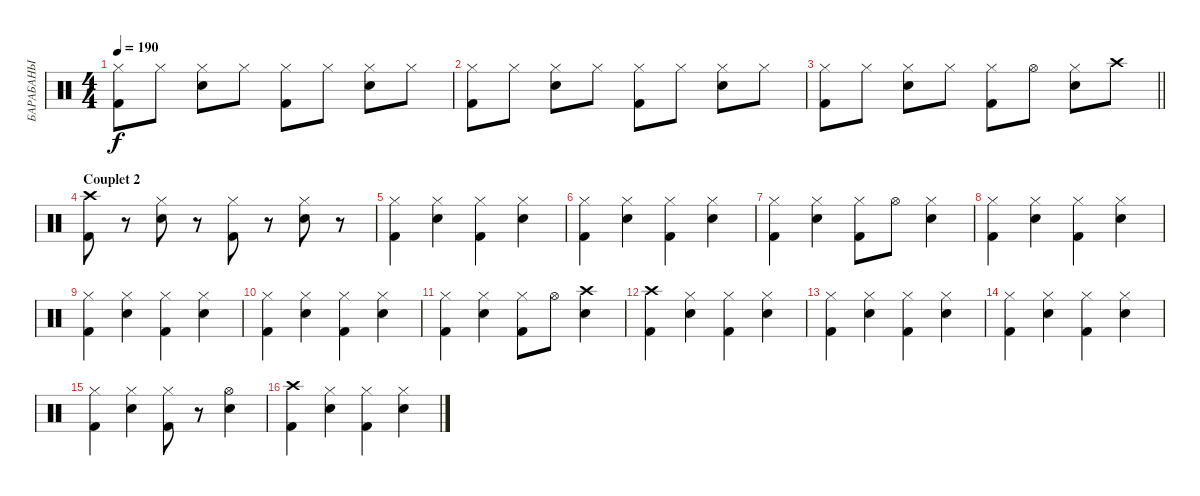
\track ("БАРАБАНЫ" "БАРАБАНЫ") {instrument percussion}
\staff {score}
\articulation defaults
\ts (4 4)
\tempo 190
\clef neutral
\ks c
("Hi-Hat (closed)" "Kick (hit) 2").8{dy f} "Hi-Hat (closed)".8 ("Hi-Hat (closed)" "Snare (hit) 2").8 "Hi-Hat (closed)".8 ("Hi-Hat (closed)" "Kick (hit) 2").8 "Hi-Hat (closed)".8 ("Hi-Hat (closed)" "Snare (hit) 2").8 "Hi-Hat (closed)".8 |
("Hi-Hat (closed)" "Kick (hit) 2").8 "Hi-Hat (closed)".8 ("Hi-Hat (closed)" "Snare (hit) 2").8 "Hi-Hat (closed)".8 ("Hi-Hat (closed)" "Kick (hit) 2").8 "Hi-Hat (closed)".8 ("Hi-Hat (closed)" "Snare (hit) 2").8 "Hi-Hat (closed)".8 |
\barLineRight lightlight
("Hi-Hat (closed)" "Kick (hit) 2").8 "Hi-Hat (closed)".8 ("Hi-Hat (closed)" "Snare (hit) 2").8 "Hi-Hat (closed)".8 ("Hi-Hat (closed)" "Kick (hit) 2").8 "Hi-Hat (open)".8 ("Hi-Hat (closed)" "Snare (hit) 2").8 "Crash high (hit)".8 |
\section ("" "Couplet 2")
("Crash high (hit)" "Kick (hit) 2").8 r.8 ("Hi-Hat (closed)" "Snare (hit) 2").8 r.8 ("Hi-Hat (closed)" "Kick (hit) 2").8 r.8 ("Hi-Hat (closed)" "Snare (hit) 2").8 r.8 |
("Hi-Hat (closed)" "Kick (hit) 2").4 ("Hi-Hat (closed)" "Snare (hit) 2").4 ("Hi-Hat (closed)" "Kick (hit) 2").4 ("Hi-Hat (closed)" "Snare (hit) 2").4 |
("Hi-Hat (closed)" "Kick (hit) 2").4 ("Hi-Hat (closed)" "Snare (hit) 2").4 ("Hi-Hat (closed)" "Kick (hit) 2").4 ("Hi-Hat (closed)" "Snare (hit) 2").4 |
("Hi-Hat (closed)" "Kick (hit) 2").4 ("Hi-Hat (closed)" "Snare (hit) 2").4 ("Hi-Hat (closed)" "Kick (hit) 2").8 "Hi-Hat (open)".8 ("Hi-Hat (closed)" "Snare (hit) 2").4 |
("Hi-Hat (closed)" "Kick (hit) 2").4 ("Hi-Hat (closed)" "Snare (hit) 2").4 ("Hi-Hat (closed)" "Kick (hit) 2").4 ("Hi-Hat (closed)" "Snare (hit) 2").4 |
("Hi-Hat (closed)" "Kick (hit) 2").4 ("Hi-Hat (closed)" "Snare (hit) 2").4 ("Hi-Hat (closed)" "Kick (hit) 2").4 ("Hi-Hat (closed)" "Snare (hit) 2").4 |
("Hi-Hat (closed)" "Kick (hit) 2").4 ("Hi-Hat (closed)" "Snare (hit) 2").4 ("Hi-Hat (closed)" "Kick (hit) 2").4 ("Hi-Hat (closed)" "Snare (hit) 2").4 |
("Hi-Hat (closed)" "Kick (hit) 2").4 ("Hi-Hat (closed)" "Snare (hit) 2").4 ("Hi-Hat (closed)" "Kick (hit) 2").8 "Hi-Hat (open)".8 ("Crash high (hit)" "Snare (hit) 2").4 |
("Crash high (hit)" "Kick (hit) 2").4 ("Hi-Hat (closed)" "Snare (hit) 2").4 ("Hi-Hat (closed)" "Kick (hit) 2").4 ("Hi-Hat (closed)" "Snare (hit) 2").4 |
("Hi-Hat (closed)" "Kick (hit) 2").4 ("Hi-Hat (closed)" "Snare (hit) 2").4 ("Hi-Hat (closed)" "Kick (hit) 2").4 ("Hi-Hat (closed)" "Snare (hit) 2").4 |
("Hi-Hat (closed)" "Kick (hit) 2").4 ("Hi-Hat (closed)" "Snare (hit) 2").4 ("Hi-Hat (closed)" "Kick (hit) 2").4 ("Hi-Hat (closed)" "Snare (hit) 2").4 |
("Hi-Hat (closed)" "Kick (hit) 2").4 ("Hi-Hat (closed)" "Snare (hit) 2").4 ("Hi-Hat (closed)" "Kick (hit) 2").8 r.8 ("Hi-Hat (open)" "Snare (hit) 2").4 |
("Crash high (hit)" "Kick (hit) 2").4 ("Hi-Hat (closed)" "Snare (hit) 2").4 ("Hi-Hat (closed)" "Kick (hit) 2").4 ("Hi-Hat (closed)" "Snare (hit) 2").4
